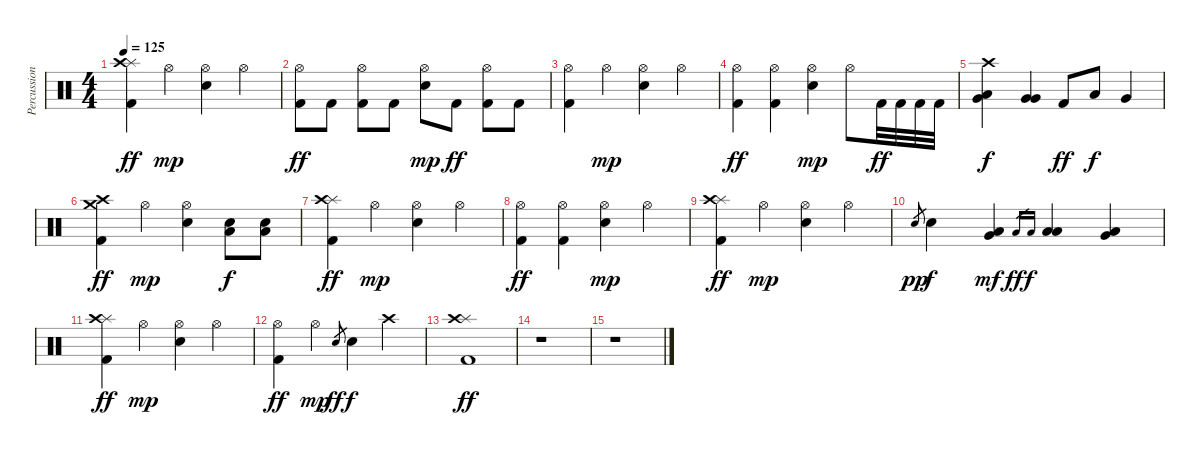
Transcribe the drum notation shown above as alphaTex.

\track ("Percussion" "Percussion") {instrument percussion}
\staff {score}
\articulation defaults
\ts (4 4)
\tempo 125
\clef neutral
\ks c
("Splash (hit)" "Crash high (hit)" "Kick (hit) 2").4{dy ff} "Hi-Hat (open)".4{dy mp} ("Hi-Hat (open)" "Snare (hit) 2").4 "Hi-Hat (open)".4 |
("Hi-Hat (open)" "Kick (hit) 2").8{dy ff} "Kick (hit) 2".8 ("Hi-Hat (open)" "Kick (hit) 2").8 "Kick (hit) 2".8 ("Hi-Hat (open)" "Snare (hit) 2").8{dy mp} "Kick (hit) 2".8{dy ff} ("Hi-Hat (open)" "Kick (hit) 2").8 "Kick (hit) 2".8 |
("Hi-Hat (open)" "Kick (hit) 2").4 "Hi-Hat (open)".4{dy mp} ("Hi-Hat (open)" "Snare (hit) 2").4 "Hi-Hat (open)".4 |
("Hi-Hat (open)" "Kick (hit) 2").4{dy ff} ("Hi-Hat (open)" "Kick (hit) 2").4 ("Hi-Hat (open)" "Snare (hit) 2").4{dy mp} "Hi-Hat (open)".8 "Kick (hit) 2".32{dy ff} "Kick (hit) 2".32 "Kick (hit) 2".32 "Kick (hit) 2".32 |
("Crash high (hit)" "Very Low Tom (hit)" "Low Tom (hit)").4{dy f} ("Very Low Tom (hit)" "Very Low Tom (hit)").4 "Kick (hit) 2".8{dy ff} "Low Tom (hit)".8{dy f} "Very Low Tom (hit)".4 |
("Crash medium (hit)" "Crash high (hit)" "Kick (hit) 2").4{dy ff} "Hi-Hat (open)".4{dy mp} ("Hi-Hat (open)" "Snare (hit) 2").4 ("Low Floor Tom (hit)" "Snare (hit) 2").8{dy f} ("Low Floor Tom (hit)" "Snare (hit) 2").8 |
("Splash (hit)" "Crash high (hit)" "Kick (hit) 2").4{dy ff} "Hi-Hat (open)".4{dy mp} ("Hi-Hat (open)" "Snare (hit) 2").4 "Hi-Hat (open)".4 |
("Hi-Hat (open)" "Kick (hit) 2").4{dy ff} ("Hi-Hat (open)" "Kick (hit) 2").4 ("Hi-Hat (open)" "Snare (hit) 2").4{dy mp} "Hi-Hat (open)".4 |
("Splash (hit)" "Crash high (hit)" "Kick (hit) 2").4{dy ff} "Hi-Hat (open)".4{dy mp} ("Hi-Hat (open)" "Snare (hit) 2").4 "Hi-Hat (open)".4 |
"Snare (hit) 2".8{gr dy pp} "Snare (hit) 2".4{dy f} ("Low Tom (hit)" "Very Low Tom (hit)").4{dy mf} "Low Tom (hit)".16{gr dy ff} "Low Tom (hit)"{h}.16{gr dy f} ("Low Tom (hit)" "Low Tom (hit)").4 ("Very Low Tom (hit)" "Low Floor Tom (hit)").4 |
("Splash (hit)" "Crash high (hit)" "Kick (hit) 2").4{dy ff} "Hi-Hat (open)".4{dy mp} ("Hi-Hat (open)" "Snare (hit) 2").4 "Hi-Hat (open)".4 |
("Hi-Hat (open)" "Kick (hit) 2").4{dy ff} "Hi-Hat (open)".4{dy mp} "Snare (hit) 2".8{gr dy ff} "Snare (hit) 2".4{dy f} "Crash high (hit)".4 |
("Splash (hit)" "Crash high (hit)" "Kick (hit) 2").1{dy ff} |
r.1 |
r.1
